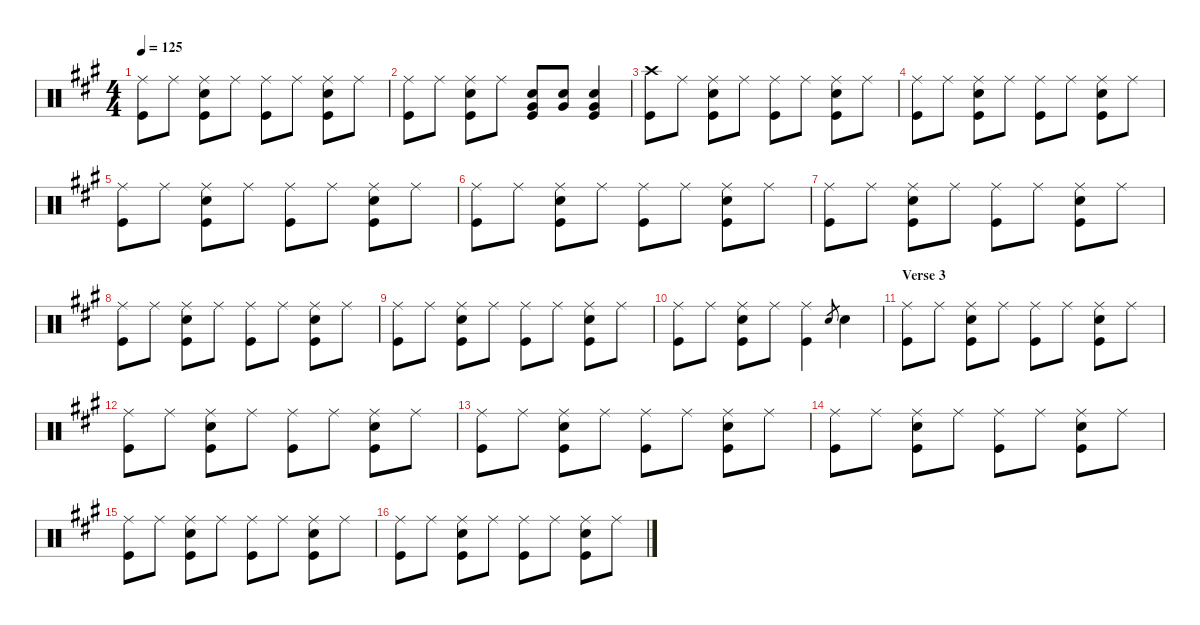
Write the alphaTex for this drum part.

\defaultSystemsLayout 4
\hideDynamics
\bracketExtendMode nobrackets
\singleTrackTrackNamePolicy hidden
\multiTrackTrackNamePolicy hidden
\otherSystemsTrackNameOrientation horizontal
\track ("Drums" "drm.") {instrument percussion}
\staff {score}
\articulation defaults
\ts (4 4)
\tempo 125
\clef neutral
\ks a
("Ride (middle)"{acc forcenatural} "Kick (hit)"{acc forcenatural}).8{dy f beam Down} "Ride (middle)"{acc forcenatural}.8{beam Down} ("Ride (middle)"{acc forcenatural} "Snare (hit) 2"{acc forcenatural} "Kick (hit)"{acc forcenatural}).8{beam Down} "Ride (middle)"{acc forcenatural}.8{beam Down} ("Ride (middle)"{acc forcenatural} "Kick (hit)"{acc forcenatural}).8{beam Down} "Ride (middle)"{acc forcenatural}.8{beam Down} ("Ride (middle)"{acc forcenatural} "Snare (hit) 2"{acc forcenatural} "Kick (hit)"{acc forcenatural}).8{beam Down} "Ride (middle)"{acc forcenatural}.8{beam Down} |
("Ride (middle)"{acc forcenatural} "Kick (hit)"{acc forcenatural}).8{beam Down} "Ride (middle)"{acc forcenatural}.8{beam Down} ("Ride (middle)"{acc forcenatural} "Snare (hit) 2"{acc forcenatural} "Kick (hit)"{acc forcenatural}).8{beam Down} "Ride (middle)"{acc forcenatural}.8{beam Down} ("Very Low Tom (hit)"{acc forcenatural} "Snare (hit) 2"{acc forcenatural} "Kick (hit)"{acc forcenatural}).8{beam Up} ("Very Low Tom (hit)"{acc forcenatural} "Snare (hit) 2"{acc forcenatural}).8{beam Up} ("Very Low Tom (hit)"{acc forcenatural} "Snare (hit) 2"{acc forcenatural} "Kick (hit)"{acc forcenatural}).4{beam Up} |
("Crash high (hit)"{acc forcenatural} "Kick (hit)"{acc forcenatural}).8{beam Down} "Ride (middle)"{acc forcenatural}.8{beam Down} ("Ride (middle)"{acc forcenatural} "Snare (hit) 2"{acc forcenatural} "Kick (hit)"{acc forcenatural}).8{beam Down} "Ride (middle)"{acc forcenatural}.8{beam Down} ("Ride (middle)"{acc forcenatural} "Kick (hit)"{acc forcenatural}).8{beam Down} "Ride (middle)"{acc forcenatural}.8{beam Down} ("Ride (middle)"{acc forcenatural} "Snare (hit) 2"{acc forcenatural} "Kick (hit)"{acc forcenatural}).8{beam Down} "Ride (middle)"{acc forcenatural}.8{beam Down} |
("Ride (middle)"{acc forcenatural} "Kick (hit)"{acc forcenatural}).8{beam Down} "Ride (middle)"{acc forcenatural}.8{beam Down} ("Ride (middle)"{acc forcenatural} "Snare (hit) 2"{acc forcenatural} "Kick (hit)"{acc forcenatural}).8{beam Down} "Ride (middle)"{acc forcenatural}.8{beam Down} ("Ride (middle)"{acc forcenatural} "Kick (hit)"{acc forcenatural}).8{beam Down} "Ride (middle)"{acc forcenatural}.8{beam Down} ("Ride (middle)"{acc forcenatural} "Snare (hit) 2"{acc forcenatural} "Kick (hit)"{acc forcenatural}).8{beam Down} "Ride (middle)"{acc forcenatural}.8{beam Down} |
("Ride (middle)"{acc forcenatural} "Kick (hit)"{acc forcenatural}).8{beam Down} "Ride (middle)"{acc forcenatural}.8{beam Down} ("Ride (middle)"{acc forcenatural} "Snare (hit) 2"{acc forcenatural} "Kick (hit)"{acc forcenatural}).8{beam Down} "Ride (middle)"{acc forcenatural}.8{beam Down} ("Ride (middle)"{acc forcenatural} "Kick (hit)"{acc forcenatural}).8{beam Down} "Ride (middle)"{acc forcenatural}.8{beam Down} ("Ride (middle)"{acc forcenatural} "Snare (hit) 2"{acc forcenatural} "Kick (hit)"{acc forcenatural}).8{beam Down} "Ride (middle)"{acc forcenatural}.8{beam Down} |
("Ride (middle)"{acc forcenatural} "Kick (hit)"{acc forcenatural}).8{beam Down} "Ride (middle)"{acc forcenatural}.8{beam Down} ("Ride (middle)"{acc forcenatural} "Snare (hit) 2"{acc forcenatural} "Kick (hit)"{acc forcenatural}).8{beam Down} "Ride (middle)"{acc forcenatural}.8{beam Down} ("Ride (middle)"{acc forcenatural} "Kick (hit)"{acc forcenatural}).8{beam Down} "Ride (middle)"{acc forcenatural}.8{beam Down} ("Ride (middle)"{acc forcenatural} "Snare (hit) 2"{acc forcenatural} "Kick (hit)"{acc forcenatural}).8{beam Down} "Ride (middle)"{acc forcenatural}.8{beam Down} |
("Ride (middle)"{acc forcenatural} "Kick (hit)"{acc forcenatural}).8{beam Down} "Ride (middle)"{acc forcenatural}.8{beam Down} ("Ride (middle)"{acc forcenatural} "Snare (hit) 2"{acc forcenatural} "Kick (hit)"{acc forcenatural}).8{beam Down} "Ride (middle)"{acc forcenatural}.8{beam Down} ("Ride (middle)"{acc forcenatural} "Kick (hit)"{acc forcenatural}).8{beam Down} "Ride (middle)"{acc forcenatural}.8{beam Down} ("Ride (middle)"{acc forcenatural} "Snare (hit) 2"{acc forcenatural} "Kick (hit)"{acc forcenatural}).8{beam Down} "Ride (middle)"{acc forcenatural}.8{beam Down} |
("Ride (middle)"{acc forcenatural} "Kick (hit)"{acc forcenatural}).8{beam Down} "Ride (middle)"{acc forcenatural}.8{beam Down} ("Ride (middle)"{acc forcenatural} "Snare (hit) 2"{acc forcenatural} "Kick (hit)"{acc forcenatural}).8{beam Down} "Ride (middle)"{acc forcenatural}.8{beam Down} ("Ride (middle)"{acc forcenatural} "Kick (hit)"{acc forcenatural}).8{beam Down} "Ride (middle)"{acc forcenatural}.8{beam Down} ("Ride (middle)"{acc forcenatural} "Snare (hit) 2"{acc forcenatural} "Kick (hit)"{acc forcenatural}).8{beam Down} "Ride (middle)"{acc forcenatural}.8{beam Down} |
("Ride (middle)"{acc forcenatural} "Kick (hit)"{acc forcenatural}).8{beam Down} "Ride (middle)"{acc forcenatural}.8{beam Down} ("Ride (middle)"{acc forcenatural} "Snare (hit) 2"{acc forcenatural} "Kick (hit)"{acc forcenatural}).8{beam Down} "Ride (middle)"{acc forcenatural}.8{beam Down} ("Ride (middle)"{acc forcenatural} "Kick (hit)"{acc forcenatural}).8{beam Down} "Ride (middle)"{acc forcenatural}.8{beam Down} ("Ride (middle)"{acc forcenatural} "Snare (hit) 2"{acc forcenatural} "Kick (hit)"{acc forcenatural}).8{beam Down} "Ride (middle)"{acc forcenatural}.8{beam Down} |
("Ride (middle)"{acc forcenatural} "Kick (hit)"{acc forcenatural}).8{beam Down} "Ride (middle)"{acc forcenatural}.8{beam Down} ("Ride (middle)"{acc forcenatural} "Snare (hit) 2"{acc forcenatural} "Kick (hit)"{acc forcenatural}).8{beam Down} "Ride (middle)"{acc forcenatural}.8{beam Down} ("Ride (middle)"{acc forcenatural} "Kick (hit)"{acc forcenatural}).4{beam Down} "Snare (hit) 2"{acc forcenatural}.8{gr dy mf beam Up} "Snare (hit) 2"{acc forcenatural}.4{dy f beam Down} |
\section ("" "Verse 3")
("Ride (middle)"{acc forcenatural} "Kick (hit)"{acc forcenatural}).8{beam Down} "Ride (middle)"{acc forcenatural}.8{beam Down} ("Ride (middle)"{acc forcenatural} "Snare (hit) 2"{acc forcenatural} "Kick (hit)"{acc forcenatural}).8{beam Down} "Ride (middle)"{acc forcenatural}.8{beam Down} ("Ride (middle)"{acc forcenatural} "Kick (hit)"{acc forcenatural}).8{beam Down} "Ride (middle)"{acc forcenatural}.8{beam Down} ("Ride (middle)"{acc forcenatural} "Snare (hit) 2"{acc forcenatural} "Kick (hit)"{acc forcenatural}).8{beam Down} "Ride (middle)"{acc forcenatural}.8{beam Down} |
("Ride (middle)"{acc forcenatural} "Kick (hit)"{acc forcenatural}).8{beam Down} "Ride (middle)"{acc forcenatural}.8{beam Down} ("Ride (middle)"{acc forcenatural} "Snare (hit) 2"{acc forcenatural} "Kick (hit)"{acc forcenatural}).8{beam Down} "Ride (middle)"{acc forcenatural}.8{beam Down} ("Ride (middle)"{acc forcenatural} "Kick (hit)"{acc forcenatural}).8{beam Down} "Ride (middle)"{acc forcenatural}.8{beam Down} ("Ride (middle)"{acc forcenatural} "Snare (hit) 2"{acc forcenatural} "Kick (hit)"{acc forcenatural}).8{beam Down} "Ride (middle)"{acc forcenatural}.8{beam Down} |
("Ride (middle)"{acc forcenatural} "Kick (hit)"{acc forcenatural}).8{beam Down} "Ride (middle)"{acc forcenatural}.8{beam Down} ("Ride (middle)"{acc forcenatural} "Snare (hit) 2"{acc forcenatural} "Kick (hit)"{acc forcenatural}).8{beam Down} "Ride (middle)"{acc forcenatural}.8{beam Down} ("Ride (middle)"{acc forcenatural} "Kick (hit)"{acc forcenatural}).8{beam Down} "Ride (middle)"{acc forcenatural}.8{beam Down} ("Ride (middle)"{acc forcenatural} "Snare (hit) 2"{acc forcenatural} "Kick (hit)"{acc forcenatural}).8{beam Down} "Ride (middle)"{acc forcenatural}.8{beam Down} |
("Ride (middle)"{acc forcenatural} "Kick (hit)"{acc forcenatural}).8{beam Down} "Ride (middle)"{acc forcenatural}.8{beam Down} ("Ride (middle)"{acc forcenatural} "Snare (hit) 2"{acc forcenatural} "Kick (hit)"{acc forcenatural}).8{beam Down} "Ride (middle)"{acc forcenatural}.8{beam Down} ("Ride (middle)"{acc forcenatural} "Kick (hit)"{acc forcenatural}).8{beam Down} "Ride (middle)"{acc forcenatural}.8{beam Down} ("Ride (middle)"{acc forcenatural} "Snare (hit) 2"{acc forcenatural} "Kick (hit)"{acc forcenatural}).8{beam Down} "Ride (middle)"{acc forcenatural}.8{beam Down} |
("Ride (middle)"{acc forcenatural} "Kick (hit)"{acc forcenatural}).8{beam Down} "Ride (middle)"{acc forcenatural}.8{beam Down} ("Ride (middle)"{acc forcenatural} "Snare (hit) 2"{acc forcenatural} "Kick (hit)"{acc forcenatural}).8{beam Down} "Ride (middle)"{acc forcenatural}.8{beam Down} ("Ride (middle)"{acc forcenatural} "Kick (hit)"{acc forcenatural}).8{beam Down} "Ride (middle)"{acc forcenatural}.8{beam Down} ("Ride (middle)"{acc forcenatural} "Snare (hit) 2"{acc forcenatural} "Kick (hit)"{acc forcenatural}).8{beam Down} "Ride (middle)"{acc forcenatural}.8{beam Down} |
("Ride (middle)"{acc forcenatural} "Kick (hit)"{acc forcenatural}).8{beam Down} "Ride (middle)"{acc forcenatural}.8{beam Down} ("Ride (middle)"{acc forcenatural} "Snare (hit) 2"{acc forcenatural} "Kick (hit)"{acc forcenatural}).8{beam Down} "Ride (middle)"{acc forcenatural}.8{beam Down} ("Ride (middle)"{acc forcenatural} "Kick (hit)"{acc forcenatural}).8{beam Down} "Ride (middle)"{acc forcenatural}.8{beam Down} ("Ride (middle)"{acc forcenatural} "Snare (hit) 2"{acc forcenatural} "Kick (hit)"{acc forcenatural}).8{beam Down} "Ride (middle)"{acc forcenatural}.8{beam Down}
